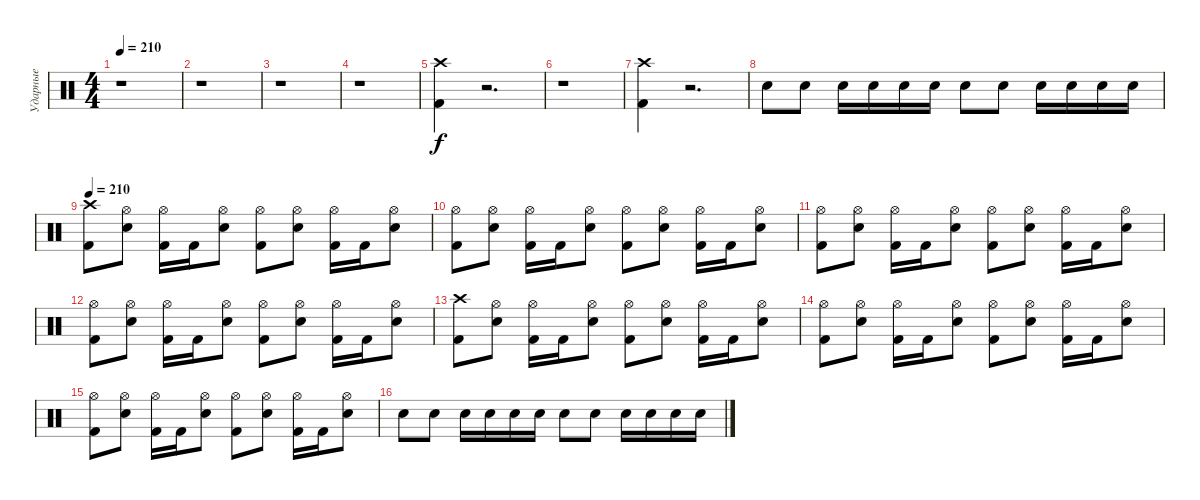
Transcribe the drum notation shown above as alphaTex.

\track ("Ударные" "Ударные") {instrument percussion}
\staff {score}
\articulation defaults
\ts (4 4)
\tempo 210
\clef neutral
\ks c
r.1{dy f} |
r.1 |
r.1 |
r.1 |
("Crash high (hit)" "Kick (hit) 2").4 r.2{d} |
r.1 |
("Crash high (hit)" "Kick (hit) 2").4 r.2{d} |
"Snare (hit) 2".8 "Snare (hit) 2".8 "Snare (hit) 2".16 "Snare (hit) 2".16 "Snare (hit) 2".16 "Snare (hit) 2".16 "Snare (hit) 2".8 "Snare (hit) 2".8 "Snare (hit) 2".16 "Snare (hit) 2".16 "Snare (hit) 2".16 "Snare (hit) 2".16 |
\tempo 210
("Crash high (hit)" "Kick (hit) 2").8 ("Hi-Hat (open)" "Snare (hit) 2").8 ("Hi-Hat (open)" "Kick (hit) 2").16 "Kick (hit) 2".16 ("Hi-Hat (open)" "Snare (hit) 2").8 ("Hi-Hat (open)" "Kick (hit) 2").8 ("Hi-Hat (open)" "Snare (hit) 2").8 ("Hi-Hat (open)" "Kick (hit) 2").16 "Kick (hit) 2".16 ("Hi-Hat (open)" "Snare (hit) 2").8 |
("Hi-Hat (open)" "Kick (hit) 2").8 ("Hi-Hat (open)" "Snare (hit) 2").8 ("Hi-Hat (open)" "Kick (hit) 2").16 "Kick (hit) 2".16 ("Hi-Hat (open)" "Snare (hit) 2").8 ("Hi-Hat (open)" "Kick (hit) 2").8 ("Hi-Hat (open)" "Snare (hit) 2").8 ("Hi-Hat (open)" "Kick (hit) 2").16 "Kick (hit) 2".16 ("Hi-Hat (open)" "Snare (hit) 2").8 |
("Hi-Hat (open)" "Kick (hit) 2").8 ("Hi-Hat (open)" "Snare (hit) 2").8 ("Hi-Hat (open)" "Kick (hit) 2").16 "Kick (hit) 2".16 ("Hi-Hat (open)" "Snare (hit) 2").8 ("Hi-Hat (open)" "Kick (hit) 2").8 ("Hi-Hat (open)" "Snare (hit) 2").8 ("Hi-Hat (open)" "Kick (hit) 2").16 "Kick (hit) 2".16 ("Hi-Hat (open)" "Snare (hit) 2").8 |
("Hi-Hat (open)" "Kick (hit) 2").8 ("Hi-Hat (open)" "Snare (hit) 2").8 ("Hi-Hat (open)" "Kick (hit) 2").16 "Kick (hit) 2".16 ("Hi-Hat (open)" "Snare (hit) 2").8 ("Hi-Hat (open)" "Kick (hit) 2").8 ("Hi-Hat (open)" "Snare (hit) 2").8 ("Hi-Hat (open)" "Kick (hit) 2").16 "Kick (hit) 2".16 ("Hi-Hat (open)" "Snare (hit) 2").8 |
("Crash high (hit)" "Kick (hit) 2").8 ("Hi-Hat (open)" "Snare (hit) 2").8 ("Hi-Hat (open)" "Kick (hit) 2").16 "Kick (hit) 2".16 ("Hi-Hat (open)" "Snare (hit) 2").8 ("Hi-Hat (open)" "Kick (hit) 2").8 ("Hi-Hat (open)" "Snare (hit) 2").8 ("Hi-Hat (open)" "Kick (hit) 2").16 "Kick (hit) 2".16 ("Hi-Hat (open)" "Snare (hit) 2").8 |
("Hi-Hat (open)" "Kick (hit) 2").8 ("Hi-Hat (open)" "Snare (hit) 2").8 ("Hi-Hat (open)" "Kick (hit) 2").16 "Kick (hit) 2".16 ("Hi-Hat (open)" "Snare (hit) 2").8 ("Hi-Hat (open)" "Kick (hit) 2").8 ("Hi-Hat (open)" "Snare (hit) 2").8 ("Hi-Hat (open)" "Kick (hit) 2").16 "Kick (hit) 2".16 ("Hi-Hat (open)" "Snare (hit) 2").8 |
("Hi-Hat (open)" "Kick (hit) 2").8 ("Hi-Hat (open)" "Snare (hit) 2").8 ("Hi-Hat (open)" "Kick (hit) 2").16 "Kick (hit) 2".16 ("Hi-Hat (open)" "Snare (hit) 2").8 ("Hi-Hat (open)" "Kick (hit) 2").8 ("Hi-Hat (open)" "Snare (hit) 2").8 ("Hi-Hat (open)" "Kick (hit) 2").16 "Kick (hit) 2".16 ("Hi-Hat (open)" "Snare (hit) 2").8 |
"Snare (hit) 2".8 "Snare (hit) 2".8 "Snare (hit) 2".16 "Snare (hit) 2".16 "Snare (hit) 2".16 "Snare (hit) 2".16 "Snare (hit) 2".8 "Snare (hit) 2".8 "Snare (hit) 2".16 "Snare (hit) 2".16 "Snare (hit) 2".16 "Snare (hit) 2".16
